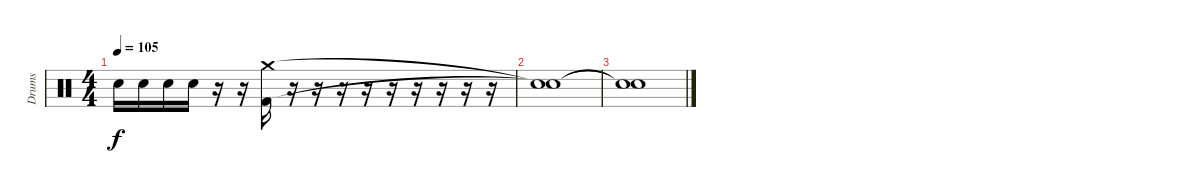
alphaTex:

\track ("Drums" "Drums") {instrument percussion}
\staff {score}
\articulation defaults
\ts (4 4)
\tempo 105
\clef neutral
\ks c "Electric Snare (hit)".16{dy f} "Electric Snare (hit)".16 "Electric Snare (hit)".16 "Electric Snare (hit)".16
r.16 r.16 ("Crash medium (hit)" "Kick (hit) 2").16 r.16 r.16 r.16 r.16 r.16 r.16 r.16 r.16 r.16 |
("Snare (hit)"{t} "Snare (hit)"{t}).1 |
("Snare (hit)"{t} "Snare (hit)"{t}).1
